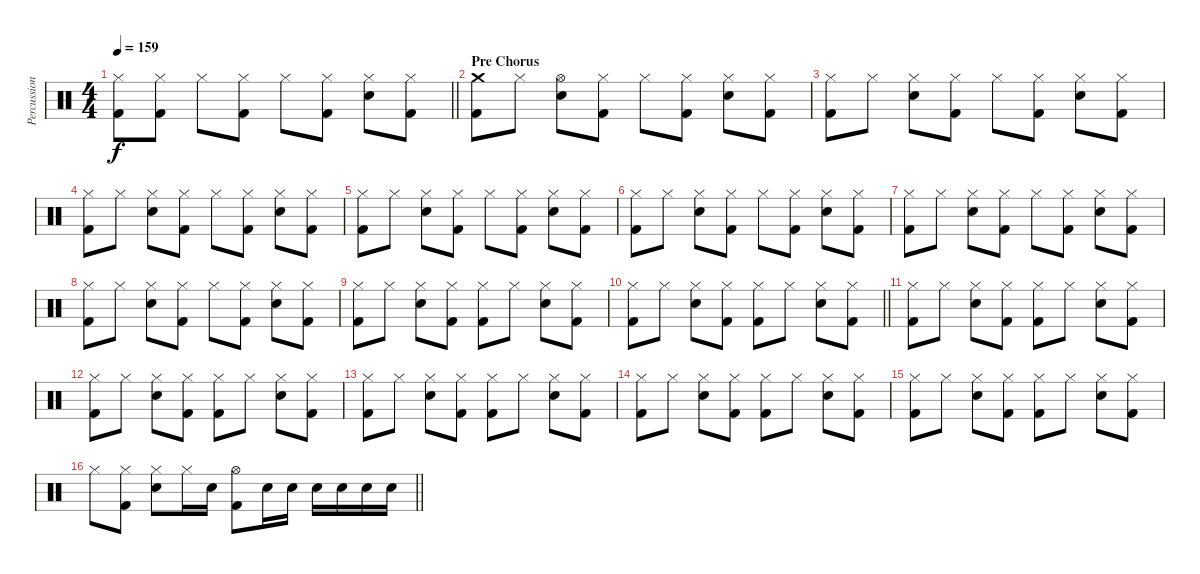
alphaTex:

\track ("Percussion" "Percussion") {instrument percussion}
\staff {score}
\articulation defaults
\ts (4 4)
\tempo 159
\clef neutral
\barLineRight lightlight
\ks c
("Hi-Hat (closed)" "Kick (hit) 2").8{dy f} ("Hi-Hat (closed)" "Kick (hit) 2").8 "Hi-Hat (closed)".8 ("Hi-Hat (closed)" "Kick (hit) 2").8 "Hi-Hat (closed)".8 ("Hi-Hat (closed)" "Kick (hit) 2").8 ("Hi-Hat (closed)" "Electric Snare (hit)").8 ("Hi-Hat (closed)" "Kick (hit) 2").8 |
\section ("" "Pre Chorus")
("Crash medium (hit)" "Kick (hit) 2").8 "Hi-Hat (closed)".8 ("Hi-Hat (open)" "Electric Snare (hit)").8 ("Hi-Hat (closed)" "Kick (hit) 2").8 "Hi-Hat (closed)".8 ("Hi-Hat (closed)" "Kick (hit) 2").8 ("Hi-Hat (closed)" "Electric Snare (hit)").8 ("Hi-Hat (closed)" "Kick (hit) 2").8 |
("Hi-Hat (closed)" "Kick (hit) 2").8 "Hi-Hat (closed)".8 ("Hi-Hat (closed)" "Electric Snare (hit)").8 ("Hi-Hat (closed)" "Kick (hit) 2").8 "Hi-Hat (closed)".8 ("Hi-Hat (closed)" "Kick (hit) 2").8 ("Hi-Hat (closed)" "Electric Snare (hit)").8 ("Hi-Hat (closed)" "Kick (hit) 2").8 |
("Hi-Hat (closed)" "Kick (hit) 2").8 "Hi-Hat (closed)".8 ("Hi-Hat (closed)" "Electric Snare (hit)").8 ("Hi-Hat (closed)" "Kick (hit) 2").8 "Hi-Hat (closed)".8 ("Hi-Hat (closed)" "Kick (hit) 2").8 ("Hi-Hat (closed)" "Electric Snare (hit)").8 ("Hi-Hat (closed)" "Kick (hit) 2").8 |
("Hi-Hat (closed)" "Kick (hit) 2").8 "Hi-Hat (closed)".8 ("Hi-Hat (closed)" "Electric Snare (hit)").8 ("Hi-Hat (closed)" "Kick (hit) 2").8 "Hi-Hat (closed)".8 ("Hi-Hat (closed)" "Kick (hit) 2").8 ("Hi-Hat (closed)" "Electric Snare (hit)").8 ("Hi-Hat (closed)" "Kick (hit) 2").8 |
("Hi-Hat (closed)" "Kick (hit) 2").8 "Hi-Hat (closed)".8 ("Hi-Hat (closed)" "Electric Snare (hit)").8 ("Hi-Hat (closed)" "Kick (hit) 2").8 "Hi-Hat (closed)".8 ("Hi-Hat (closed)" "Kick (hit) 2").8 ("Hi-Hat (closed)" "Electric Snare (hit)").8 ("Hi-Hat (closed)" "Kick (hit) 2").8 |
("Hi-Hat (closed)" "Kick (hit) 2").8 "Hi-Hat (closed)".8 ("Hi-Hat (closed)" "Electric Snare (hit)").8 ("Hi-Hat (closed)" "Kick (hit) 2").8 "Hi-Hat (closed)".8 ("Hi-Hat (closed)" "Kick (hit) 2").8 ("Hi-Hat (closed)" "Electric Snare (hit)").8 ("Hi-Hat (closed)" "Kick (hit) 2").8 |
("Hi-Hat (closed)" "Kick (hit) 2").8 "Hi-Hat (closed)".8 ("Hi-Hat (closed)" "Electric Snare (hit)").8 ("Hi-Hat (closed)" "Kick (hit) 2").8 "Hi-Hat (closed)".8 ("Hi-Hat (closed)" "Kick (hit) 2").8 ("Hi-Hat (closed)" "Electric Snare (hit)").8 ("Hi-Hat (closed)" "Kick (hit) 2").8 |
("Hi-Hat (closed)" "Kick (hit) 2").8 "Hi-Hat (closed)".8 ("Hi-Hat (closed)" "Electric Snare (hit)").8 ("Hi-Hat (closed)" "Kick (hit) 2").8 ("Hi-Hat (closed)" "Kick (hit) 2").8 "Hi-Hat (closed)".8 ("Hi-Hat (closed)" "Electric Snare (hit)").8 ("Hi-Hat (closed)" "Kick (hit) 2").8 |
\barLineRight lightlight
("Hi-Hat (closed)" "Kick (hit) 2").8 "Hi-Hat (closed)".8 ("Hi-Hat (closed)" "Electric Snare (hit)").8 ("Hi-Hat (closed)" "Kick (hit) 2").8 ("Hi-Hat (closed)" "Kick (hit) 2").8 "Hi-Hat (closed)".8 ("Hi-Hat (closed)" "Electric Snare (hit)").8 ("Hi-Hat (closed)" "Kick (hit) 2").8 |
("Hi-Hat (closed)" "Kick (hit) 2").8 "Hi-Hat (closed)".8 ("Hi-Hat (closed)" "Electric Snare (hit)").8 ("Hi-Hat (closed)" "Kick (hit) 2").8 ("Hi-Hat (closed)" "Kick (hit) 2").8 "Hi-Hat (closed)".8 ("Hi-Hat (closed)" "Electric Snare (hit)").8 ("Hi-Hat (closed)" "Kick (hit) 2").8 |
("Hi-Hat (closed)" "Kick (hit) 2").8 "Hi-Hat (closed)".8 ("Hi-Hat (closed)" "Electric Snare (hit)").8 ("Hi-Hat (closed)" "Kick (hit) 2").8 ("Hi-Hat (closed)" "Kick (hit) 2").8 "Hi-Hat (closed)".8 ("Hi-Hat (closed)" "Electric Snare (hit)").8 ("Hi-Hat (closed)" "Kick (hit) 2").8 |
("Hi-Hat (closed)" "Kick (hit) 2").8 "Hi-Hat (closed)".8 ("Hi-Hat (closed)" "Electric Snare (hit)").8 ("Hi-Hat (closed)" "Kick (hit) 2").8 ("Hi-Hat (closed)" "Kick (hit) 2").8 "Hi-Hat (closed)".8 ("Hi-Hat (closed)" "Electric Snare (hit)").8 ("Hi-Hat (closed)" "Kick (hit) 2").8 |
("Hi-Hat (closed)" "Kick (hit) 2").8 "Hi-Hat (closed)".8 ("Hi-Hat (closed)" "Electric Snare (hit)").8 ("Hi-Hat (closed)" "Kick (hit) 2").8 ("Hi-Hat (closed)" "Kick (hit) 2").8 "Hi-Hat (closed)".8 ("Hi-Hat (closed)" "Electric Snare (hit)").8 ("Hi-Hat (closed)" "Kick (hit) 2").8 |
("Hi-Hat (closed)" "Kick (hit) 2").8 "Hi-Hat (closed)".8 ("Hi-Hat (closed)" "Electric Snare (hit)").8 ("Hi-Hat (closed)" "Kick (hit) 2").8 ("Hi-Hat (closed)" "Kick (hit) 2").8 "Hi-Hat (closed)".8 ("Hi-Hat (closed)" "Electric Snare (hit)").8 ("Hi-Hat (closed)" "Kick (hit) 2").8 |
\barLineRight lightlight "Hi-Hat (closed)".8
("Hi-Hat (closed)" "Kick (hit) 2").8 ("Hi-Hat (closed)" "Electric Snare (hit)").8 "Hi-Hat (closed)".16 "Electric Snare (hit)".16 ("Hi-Hat (open)" "Kick (hit) 2").8 "Electric Snare (hit)".16 "Electric Snare (hit)".16 "Electric Snare (hit)".16 "Electric Snare (hit)".16 "Electric Snare (hit)".16 "Electric Snare (hit)".16
